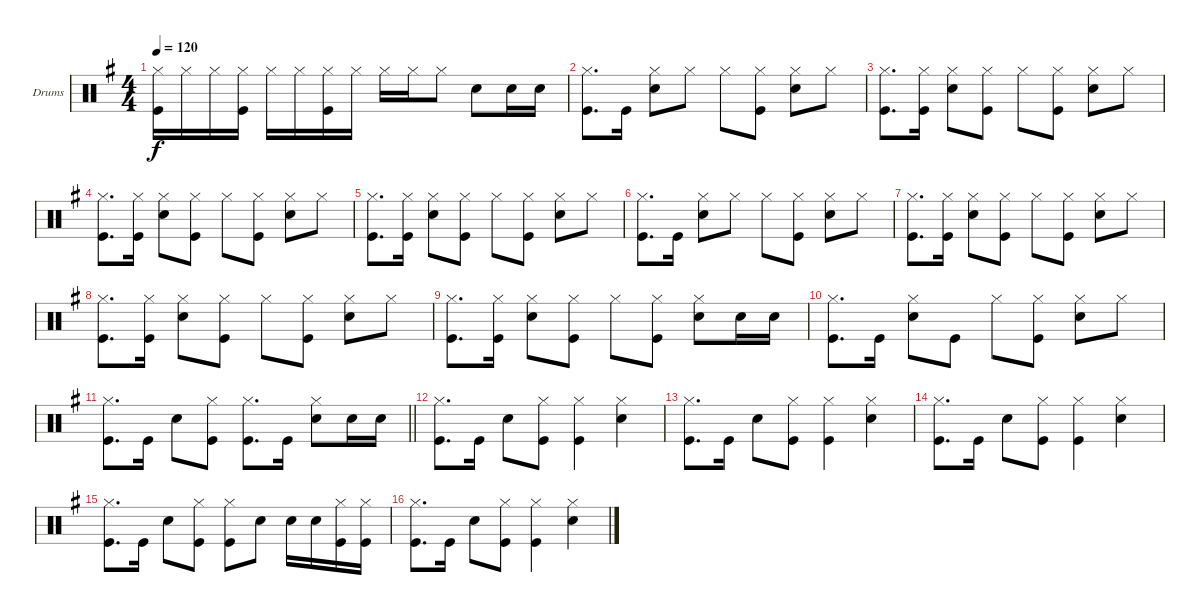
\bracketExtendMode groupsimilarinstruments
\firstSystemTrackNameOrientation horizontal
\otherSystemsTrackNameOrientation horizontal
\track ("Drumkit" "Drums") {instrument percussion}
\staff {score}
\articulation defaults
\ts (4 4)
\tempo 120
\clef neutral
\ks eminor
("Hi-Hat (closed)" "Kick (hit)").16{dy f} "Hi-Hat (closed)".16 "Hi-Hat (closed)".16 ("Hi-Hat (closed)" "Kick (hit)").16 "Hi-Hat (closed)".16 "Hi-Hat (closed)".16 ("Hi-Hat (closed)" "Kick (hit)").16 "Hi-Hat (closed)".16 "Hi-Hat (closed)".16 "Hi-Hat (closed)".16 "Hi-Hat (closed)".8 "Snare (hit) 2".8 "Snare (hit) 2".16 "Snare (hit) 2".16 |
("Hi-Hat (closed)" "Kick (hit)").8{d} "Kick (hit)".16 ("Hi-Hat (closed)" "Snare (hit) 2").8 "Hi-Hat (closed)".8 "Hi-Hat (closed)".8 ("Hi-Hat (closed)" "Kick (hit)").8 ("Hi-Hat (closed)" "Snare (hit) 2").8 "Hi-Hat (closed)".8 |
("Hi-Hat (closed)" "Kick (hit)").8{d} ("Hi-Hat (closed)" "Kick (hit)").16 ("Hi-Hat (closed)" "Snare (hit) 2").8 ("Hi-Hat (closed)" "Kick (hit)").8 "Hi-Hat (closed)".8 ("Hi-Hat (closed)" "Kick (hit)").8 ("Hi-Hat (closed)" "Snare (hit) 2").8 "Hi-Hat (closed)".8 |
("Hi-Hat (closed)" "Kick (hit)").8{d} ("Hi-Hat (closed)" "Kick (hit)").16 ("Hi-Hat (closed)" "Snare (hit) 2").8 ("Hi-Hat (closed)" "Kick (hit)").8 "Hi-Hat (closed)".8 ("Hi-Hat (closed)" "Kick (hit)").8 ("Hi-Hat (closed)" "Snare (hit) 2").8 "Hi-Hat (closed)".8 |
("Hi-Hat (closed)" "Kick (hit)").8{d} ("Hi-Hat (closed)" "Kick (hit)").16 ("Hi-Hat (closed)" "Snare (hit) 2").8 ("Hi-Hat (closed)" "Kick (hit)").8 "Hi-Hat (closed)".8 ("Hi-Hat (closed)" "Kick (hit)").8 ("Hi-Hat (closed)" "Snare (hit) 2").8 "Hi-Hat (closed)".8 |
("Hi-Hat (closed)" "Kick (hit)").8{d} "Kick (hit)".16 ("Hi-Hat (closed)" "Snare (hit) 2").8 "Hi-Hat (closed)".8 "Hi-Hat (closed)".8 ("Hi-Hat (closed)" "Kick (hit)").8 ("Hi-Hat (closed)" "Snare (hit) 2").8 "Hi-Hat (closed)".8 |
("Hi-Hat (closed)" "Kick (hit)").8{d} ("Hi-Hat (closed)" "Kick (hit)").16 ("Hi-Hat (closed)" "Snare (hit) 2").8 ("Hi-Hat (closed)" "Kick (hit)").8 "Hi-Hat (closed)".8 ("Hi-Hat (closed)" "Kick (hit)").8 ("Hi-Hat (closed)" "Snare (hit) 2").8 "Hi-Hat (closed)".8 |
("Hi-Hat (closed)" "Kick (hit)").8{d} ("Hi-Hat (closed)" "Kick (hit)").16 ("Hi-Hat (closed)" "Snare (hit) 2").8 ("Hi-Hat (closed)" "Kick (hit)").8 "Hi-Hat (closed)".8 ("Hi-Hat (closed)" "Kick (hit)").8 ("Hi-Hat (closed)" "Snare (hit) 2").8 "Hi-Hat (closed)".8 |
("Hi-Hat (closed)" "Kick (hit)").8{d} ("Hi-Hat (closed)" "Kick (hit)").16 ("Hi-Hat (closed)" "Snare (hit) 2").8 ("Hi-Hat (closed)" "Kick (hit)").8 "Hi-Hat (closed)".8 ("Hi-Hat (closed)" "Kick (hit)").8 ("Hi-Hat (closed)" "Snare (hit) 2").8 "Snare (hit) 2".16 "Snare (hit) 2".16 |
("Hi-Hat (closed)" "Kick (hit)").8{d} "Kick (hit)".16 ("Hi-Hat (closed)" "Snare (hit) 2").8 "Kick (hit)".8 "Hi-Hat (closed)".8 ("Hi-Hat (closed)" "Kick (hit)").8 ("Hi-Hat (closed)" "Snare (hit) 2").8 "Hi-Hat (closed)".8 |
\barLineRight lightlight
("Hi-Hat (closed)" "Kick (hit)").8{d} "Kick (hit)".16 "Snare (hit) 2".8 ("Hi-Hat (closed)" "Kick (hit)").8 ("Hi-Hat (closed)" "Kick (hit)").8{d} "Kick (hit)".16 ("Hi-Hat (closed)" "Snare (hit) 2").8 "Snare (hit) 2".16 "Snare (hit) 2".16 |
("Hi-Hat (closed)" "Kick (hit)").8{d} "Kick (hit)".16 "Snare (hit) 2".8 ("Hi-Hat (closed)" "Kick (hit)").8 ("Hi-Hat (closed)" "Kick (hit)").4 ("Hi-Hat (closed)" "Snare (hit) 2").4 |
("Hi-Hat (closed)" "Kick (hit)").8{d} "Kick (hit)".16 "Snare (hit) 2".8 ("Hi-Hat (closed)" "Kick (hit)").8 ("Hi-Hat (closed)" "Kick (hit)").4 ("Hi-Hat (closed)" "Snare (hit) 2").4 |
("Hi-Hat (closed)" "Kick (hit)").8{d} "Kick (hit)".16 "Snare (hit) 2".8 ("Hi-Hat (closed)" "Kick (hit)").8 ("Hi-Hat (closed)" "Kick (hit)").4 ("Hi-Hat (closed)" "Snare (hit) 2").4 |
("Hi-Hat (closed)" "Kick (hit)").8{d} "Kick (hit)".16 "Snare (hit) 2".8 ("Hi-Hat (closed)" "Kick (hit)").8 ("Hi-Hat (closed)" "Kick (hit)").8 "Snare (hit) 2".8 "Snare (hit) 2".16 "Snare (hit) 2".16 ("Hi-Hat (closed)" "Kick (hit)").16 ("Hi-Hat (closed)" "Kick (hit)").16 |
("Hi-Hat (closed)" "Kick (hit)").8{d} "Kick (hit)".16 "Snare (hit) 2".8 ("Hi-Hat (closed)" "Kick (hit)").8 ("Hi-Hat (closed)" "Kick (hit)").4 ("Hi-Hat (closed)" "Snare (hit) 2").4
